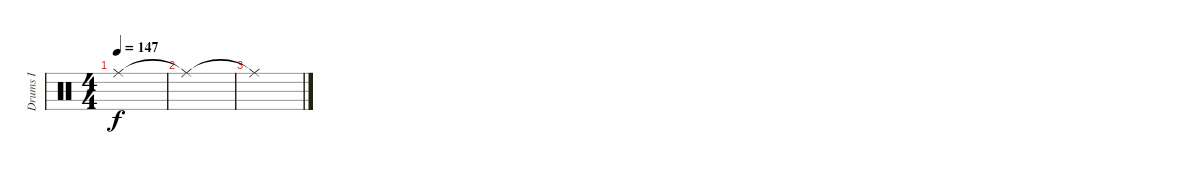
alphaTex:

\track ("Drums I" "Drums I") {instrument percussion}
\staff {score}
\articulation defaults
\ts (4 4)
\tempo 147
\clef neutral
\ks c "Ride (middle)"{t}.1{dy f}
|
"Ride (middle)"{t}.1 |
"Ride (middle)"{t}.1
